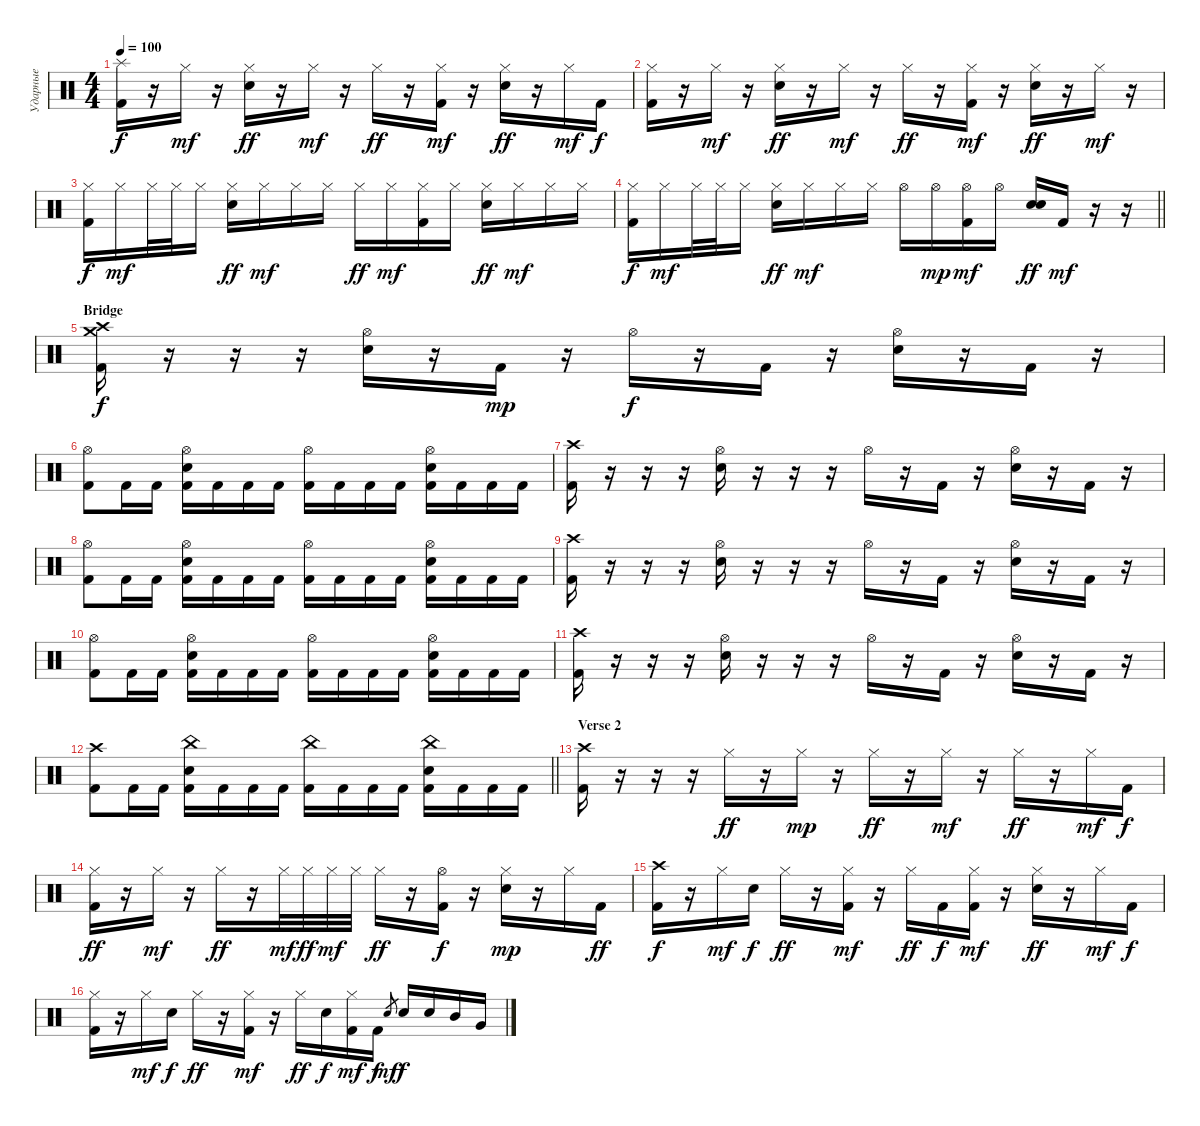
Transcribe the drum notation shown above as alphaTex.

\track ("Ударные" "Ударные") {instrument percussion}
\staff {score}
\articulation defaults
\ts (4 4)
\tempo 100
\clef neutral
\ks c
("Splash (hit)" "Kick (hit) 2").16{dy f} r.16 "Hi-Hat (closed)".16{dy mf} r.16 ("Hi-Hat (closed)" "Electric Snare (hit)").16{dy ff} r.16 "Hi-Hat (closed)".16{dy mf} r.16 "Hi-Hat (closed)".16{dy ff} r.16 ("Hi-Hat (closed)" "Kick (hit) 2").16{dy mf} r.16 ("Hi-Hat (closed)" "Electric Snare (hit)").16{dy ff} r.16 "Hi-Hat (closed)".16{dy mf} "Kick (hit) 2".16{dy f} |
("Hi-Hat (closed)" "Kick (hit) 2").16 r.16 "Hi-Hat (closed)".16{dy mf} r.16 ("Hi-Hat (closed)" "Electric Snare (hit)").16{dy ff} r.16 "Hi-Hat (closed)".16{dy mf} r.16 "Hi-Hat (closed)".16{dy ff} r.16 ("Hi-Hat (closed)" "Kick (hit) 2").16{dy mf} r.16 ("Hi-Hat (closed)" "Electric Snare (hit)").16{dy ff} r.16 "Hi-Hat (closed)".16{dy mf} r.16 |
("Hi-Hat (closed)" "Kick (hit) 2").16{dy f} "Hi-Hat (closed)".16{dy mf} "Hi-Hat (closed)".32 "Hi-Hat (closed)".32 "Hi-Hat (closed)".16 ("Hi-Hat (closed)" "Electric Snare (hit)").16{dy ff} "Hi-Hat (closed)".16{dy mf} "Hi-Hat (closed)".16 "Hi-Hat (closed)".16 "Hi-Hat (closed)".16{dy ff} "Hi-Hat (closed)".16{dy mf} ("Hi-Hat (closed)" "Kick (hit) 2").16 "Hi-Hat (closed)".16 ("Hi-Hat (closed)" "Electric Snare (hit)").16{dy ff} "Hi-Hat (closed)".16{dy mf} "Hi-Hat (closed)".16 "Hi-Hat (closed)".16 |
\barLineRight lightlight
("Hi-Hat (closed)" "Kick (hit) 2").16{dy f} "Hi-Hat (closed)".16{dy mf} "Hi-Hat (closed)".32 "Hi-Hat (closed)".32 "Hi-Hat (closed)".16 ("Hi-Hat (closed)" "Electric Snare (hit)").16{dy ff} "Hi-Hat (closed)".16{dy mf} "Hi-Hat (closed)".16 "Hi-Hat (closed)".16 "Hi-Hat (open)".16 "Hi-Hat (open)".16{dy mp} ("Hi-Hat (open)" "Kick (hit) 2").16{dy mf} "Hi-Hat (open)".16 ("Electric Snare (hit)" "Electric Snare (hit)").16{dy ff} "Kick (hit) 2".16{dy mf} r.16 r.16 |
\section ("" "Bridge")
("Crash medium (hit)" "Crash high (hit)" "Kick (hit) 2").16{dy f} r.16 r.16 r.16 ("Hi-Hat (open)" "Electric Snare (hit)").16 r.16 "Kick (hit) 2".16{dy mp} r.16 "Hi-Hat (open)".16{dy f} r.16 "Kick (hit) 2".16 r.16 ("Hi-Hat (open)" "Electric Snare (hit)").16 r.16 "Kick (hit) 2".16 r.16 |
("Hi-Hat (open)" "Kick (hit) 2").8 "Kick (hit) 2".16 "Kick (hit) 2".16 ("Hi-Hat (open)" "Electric Snare (hit)" "Kick (hit) 2").16 "Kick (hit) 2".16 "Kick (hit) 2".16 "Kick (hit) 2".16 ("Hi-Hat (open)" "Kick (hit) 2").16 "Kick (hit) 2".16 "Kick (hit) 2".16 "Kick (hit) 2".16 ("Hi-Hat (open)" "Electric Snare (hit)" "Kick (hit) 2").16 "Kick (hit) 2".16 "Kick (hit) 2".16 "Kick (hit) 2".16 |
("Crash high (hit)" "Kick (hit) 2").16 r.16 r.16 r.16 ("Hi-Hat (open)" "Electric Snare (hit)").16 r.16 r.16 r.16 "Hi-Hat (open)".16 r.16 "Kick (hit) 2".16 r.16 ("Hi-Hat (open)" "Electric Snare (hit)").16 r.16 "Kick (hit) 2".16 r.16 |
("Hi-Hat (open)" "Kick (hit) 2").8 "Kick (hit) 2".16 "Kick (hit) 2".16 ("Hi-Hat (open)" "Electric Snare (hit)" "Kick (hit) 2").16 "Kick (hit) 2".16 "Kick (hit) 2".16 "Kick (hit) 2".16 ("Hi-Hat (open)" "Kick (hit) 2").16 "Kick (hit) 2".16 "Kick (hit) 2".16 "Kick (hit) 2".16 ("Hi-Hat (open)" "Electric Snare (hit)" "Kick (hit) 2").16 "Kick (hit) 2".16 "Kick (hit) 2".16 "Kick (hit) 2".16 |
("Crash high (hit)" "Kick (hit) 2").16 r.16 r.16 r.16 ("Hi-Hat (open)" "Electric Snare (hit)").16 r.16 r.16 r.16 "Hi-Hat (open)".16 r.16 "Kick (hit) 2".16 r.16 ("Hi-Hat (open)" "Electric Snare (hit)").16 r.16 "Kick (hit) 2".16 r.16 |
("Hi-Hat (open)" "Kick (hit) 2").8 "Kick (hit) 2".16 "Kick (hit) 2".16 ("Hi-Hat (open)" "Electric Snare (hit)" "Kick (hit) 2").16 "Kick (hit) 2".16 "Kick (hit) 2".16 "Kick (hit) 2".16 ("Hi-Hat (open)" "Kick (hit) 2").16 "Kick (hit) 2".16 "Kick (hit) 2".16 "Kick (hit) 2".16 ("Hi-Hat (open)" "Electric Snare (hit)" "Kick (hit) 2").16 "Kick (hit) 2".16 "Kick (hit) 2".16 "Kick (hit) 2".16 |
("Crash high (hit)" "Kick (hit) 2").16 r.16 r.16 r.16 ("Hi-Hat (open)" "Electric Snare (hit)").16 r.16 r.16 r.16 "Hi-Hat (open)".16 r.16 "Kick (hit) 2".16 r.16 ("Hi-Hat (open)" "Electric Snare (hit)").16 r.16 "Kick (hit) 2".16 r.16 |
\barLineRight lightlight
("Crash high (hit)" "Kick (hit) 2").8 "Kick (hit) 2".16 "Kick (hit) 2".16 ("China (hit)" "Electric Snare (hit)" "Kick (hit) 2").16 "Kick (hit) 2".16 "Kick (hit) 2".16 "Kick (hit) 2".16 ("China (hit)" "Kick (hit) 2").16 "Kick (hit) 2".16 "Kick (hit) 2".16 "Kick (hit) 2".16 ("China (hit)" "Electric Snare (hit)" "Kick (hit) 2").16 "Kick (hit) 2".16 "Kick (hit) 2".16 "Kick (hit) 2".16 |
\section ("" "Verse 2")
("Crash high (hit)" "Kick (hit) 2").16 r.16 r.16 r.16 "Hi-Hat (closed)".16{dy ff} r.16 "Hi-Hat (closed)".16{dy mp} r.16 "Hi-Hat (closed)".16{dy ff} r.16 "Hi-Hat (closed)".16{dy mf} r.16 "Hi-Hat (closed)".16{dy ff} r.16 "Hi-Hat (closed)".16{dy mf} "Kick (hit) 2".16{dy f} |
("Hi-Hat (closed)" "Kick (hit) 2").16{dy ff} r.16 "Hi-Hat (closed)".16{dy mf} r.16 "Hi-Hat (closed)".16{dy ff} r.16 "Hi-Hat (closed)".32{dy mf} "Hi-Hat (closed)".32{dy ff} "Hi-Hat (closed)".32{dy mf} "Hi-Hat (closed)".32 "Hi-Hat (closed)".16{dy ff} r.16 ("Hi-Hat (open)" "Kick (hit) 2").16{dy f} r.16 ("Hi-Hat (closed)" "Electric Snare (hit)").16{dy mp} r.16 "Hi-Hat (closed)".16 "Kick (hit) 2".16{dy ff} |
("Crash high (hit)" "Kick (hit) 2").16{dy f} r.16 "Hi-Hat (closed)".16{dy mf} "Electric Snare (hit)".16{dy f} "Hi-Hat (closed)".16{dy ff} r.16 ("Hi-Hat (closed)" "Kick (hit) 2").16{dy mf} r.16 "Hi-Hat (closed)".16{dy ff} "Kick (hit) 2".16{dy f} ("Hi-Hat (closed)" "Kick (hit) 2").16{dy mf} r.16 ("Hi-Hat (closed)" "Electric Snare (hit)").16{dy ff} r.16 "Hi-Hat (closed)".16{dy mf} "Kick (hit) 2".16{dy f} |
("Hi-Hat (closed)" "Kick (hit) 2").16 r.16 "Hi-Hat (closed)".16{dy mf} "Electric Snare (hit)".16{dy f} "Hi-Hat (closed)".16{dy ff} r.16 ("Hi-Hat (closed)" "Kick (hit) 2").16{dy mf} r.16 "Hi-Hat (closed)".16{dy ff} "Electric Snare (hit)".16{dy f} ("Hi-Hat (closed)" "Kick (hit) 2").16{dy mf} "Kick (hit) 2".16{dy f} "Electric Snare (hit)".8{gr dy mf} "Electric Snare (hit)".16{dy f} "Electric Snare (hit)".16 "Mid Tom (hit)".16 "Very Low Tom (hit)".16
